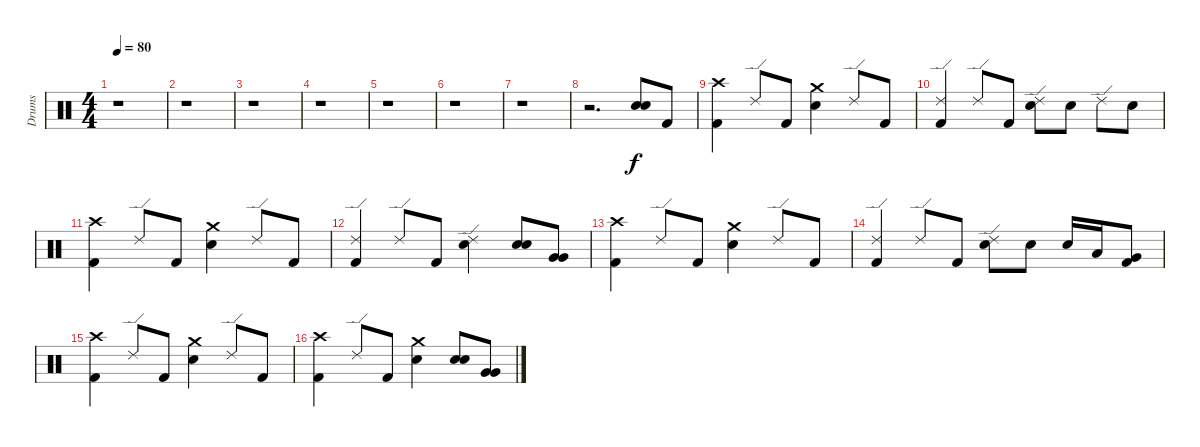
\track ("Drums" "Drums") {instrument percussion}
\staff {score}
\articulation defaults
\ts (4 4)
\tempo 80
\clef neutral
\ks c
r.1{dy f} |
r.1 |
r.1 |
r.1 |
r.1 |
r.1 |
r.1 |
r.2{d} ("Electric Snare (hit)" "Electric Snare (hit)").8{bu 60} "Kick (hit) 2".8 |
("Crash high (hit)" "Kick (hit) 2").4 "Ride (edge) 2".8 "Kick (hit) 2".8 ("Crash medium (hit)" "Electric Snare (hit)").4 "Ride (edge) 2".8 "Kick (hit) 2".8 |
("Ride (edge) 2" "Kick (hit) 2").4 "Ride (edge) 2".8 "Kick (hit) 2".8 ("Ride (edge) 2" "Electric Snare (hit)").8 "Electric Snare (hit)".8 "Ride (edge) 2".8 "Electric Snare (hit)".8 |
("Crash high (hit)" "Kick (hit) 2").4 "Ride (edge) 2".8 "Kick (hit) 2".8 ("Crash medium (hit)" "Electric Snare (hit)").4 "Ride (edge) 2".8 "Kick (hit) 2".8 |
("Ride (edge) 2" "Kick (hit) 2").4 "Ride (edge) 2".8 "Kick (hit) 2".8 ("Ride (edge) 2" "Electric Snare (hit)").4 ("Electric Snare (hit)" "Electric Snare (hit)").8{bu 60} ("Very Low Tom (hit)" "Very Low Tom (hit)").8{bu 60} |
("Crash high (hit)" "Kick (hit) 2").4 "Ride (edge) 2".8 "Kick (hit) 2".8 ("Crash medium (hit)" "Electric Snare (hit)").4 "Ride (edge) 2".8 "Kick (hit) 2".8 |
("Ride (edge) 2" "Kick (hit) 2").4 "Ride (edge) 2".8 "Kick (hit) 2".8 ("Ride (edge) 2" "Electric Snare (hit)").8 "Electric Snare (hit)".8 "Electric Snare (hit)".16 "Low Tom (hit)".16 ("Very Low Tom (hit)" "Kick (hit) 2").8 |
("Crash high (hit)" "Kick (hit) 2").4 "Ride (edge) 2".8 "Kick (hit) 2".8 ("Crash medium (hit)" "Electric Snare (hit)").4 "Ride (edge) 2".8 "Kick (hit) 2".8 |
("Crash high (hit)" "Kick (hit) 2").4 "Ride (edge) 2".8 "Kick (hit) 2".8 ("Crash medium (hit)" "Electric Snare (hit)").4 ("Electric Snare (hit)" "Electric Snare (hit)").8{bu 60} ("Very Low Tom (hit)" "Very Low Tom (hit)").8{bu 60}
